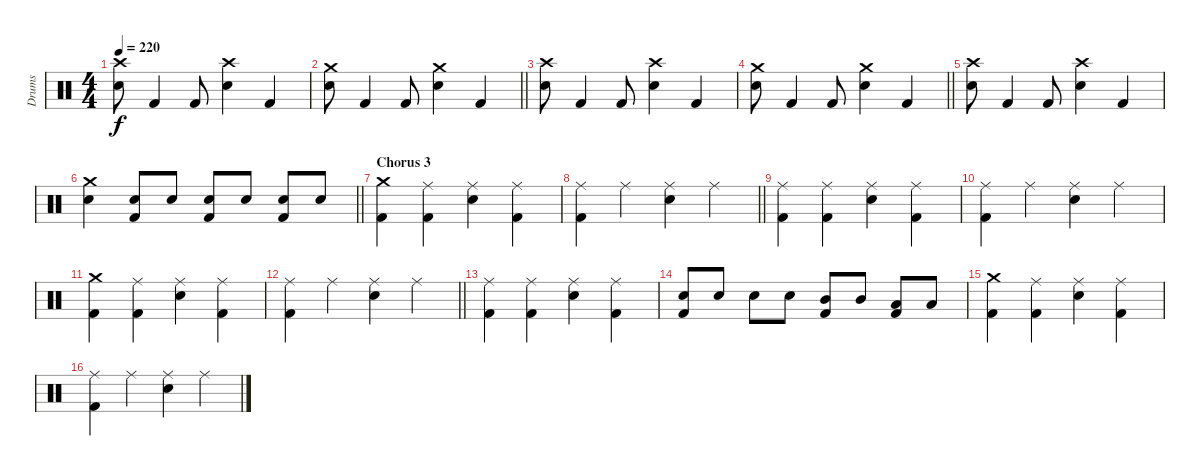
\track ("Drums" "Drums") {instrument percussion}
\staff {score}
\articulation defaults
\ts (4 4)
\tempo 220
\clef neutral
\ks c
("Crash high (hit)" "Electric Snare (hit)").8{dy f} "Kick (hit) 2".4 "Kick (hit) 2".8 ("Crash high (hit)" "Electric Snare (hit)").4 "Kick (hit) 2".4 |
\barLineRight lightlight
("Crash medium (hit)" "Electric Snare (hit)").8 "Kick (hit) 2".4 "Kick (hit) 2".8 ("Crash medium (hit)" "Electric Snare (hit)").4 "Kick (hit) 2".4 |
("Crash high (hit)" "Electric Snare (hit)").8 "Kick (hit) 2".4 "Kick (hit) 2".8 ("Crash high (hit)" "Electric Snare (hit)").4 "Kick (hit) 2".4 |
\barLineRight lightlight
("Crash medium (hit)" "Electric Snare (hit)").8 "Kick (hit) 2".4 "Kick (hit) 2".8 ("Crash medium (hit)" "Electric Snare (hit)").4 "Kick (hit) 2".4 |
("Crash high (hit)" "Electric Snare (hit)").8 "Kick (hit) 2".4 "Kick (hit) 2".8 ("Crash high (hit)" "Electric Snare (hit)").4 "Kick (hit) 2".4 |
\barLineRight lightlight
("Crash medium (hit)" "Electric Snare (hit)").4 ("Electric Snare (hit)" "Kick (hit) 2").8 "Electric Snare (hit)".8 ("Electric Snare (hit)" "Kick (hit) 2").8 "Electric Snare (hit)".8 ("Electric Snare (hit)" "Kick (hit) 2").8 "Electric Snare (hit)".8 |
\section ("" "Chorus 3")
("Crash medium (hit)" "Kick (hit) 2").4 ("Ride (middle)" "Kick (hit) 2").4 ("Ride (middle)" "Electric Snare (hit)").4 ("Ride (middle)" "Kick (hit) 2").4 |
\barLineRight lightlight
("Ride (middle)" "Kick (hit) 2").4 "Ride (middle)".4 ("Ride (middle)" "Electric Snare (hit)").4 "Ride (middle)".4 |
("Ride (middle)" "Kick (hit) 2").4 ("Ride (middle)" "Kick (hit) 2").4 ("Ride (middle)" "Electric Snare (hit)").4 ("Ride (middle)" "Kick (hit) 2").4 |
("Ride (middle)" "Kick (hit) 2").4 "Ride (middle)".4 ("Ride (middle)" "Electric Snare (hit)").4 "Ride (middle)".4 |
("Crash medium (hit)" "Kick (hit) 2").4 ("Ride (middle)" "Kick (hit) 2").4 ("Ride (middle)" "Electric Snare (hit)").4 ("Ride (middle)" "Kick (hit) 2").4 |
\barLineRight lightlight
("Ride (middle)" "Kick (hit) 2").4 "Ride (middle)".4 ("Ride (middle)" "Electric Snare (hit)").4 "Ride (middle)".4 |
("Ride (middle)" "Kick (hit) 2").4 ("Ride (middle)" "Kick (hit) 2").4 ("Ride (middle)" "Electric Snare (hit)").4 ("Ride (middle)" "Kick (hit) 2").4 |
("Electric Snare (hit)" "Kick (hit) 2").8 "Electric Snare (hit)".8 "Electric Snare (hit)".8 "Electric Snare (hit)".8 ("Mid Tom (hit)" "Kick (hit) 2").8 "Mid Tom (hit)".8 ("Low Tom (hit)" "Kick (hit) 2").8 "Low Tom (hit)".8 |
("Crash medium (hit)" "Kick (hit) 2").4 ("Ride (middle)" "Kick (hit) 2").4 ("Ride (middle)" "Electric Snare (hit)").4 ("Ride (middle)" "Kick (hit) 2").4 |
("Ride (middle)" "Kick (hit) 2").4 "Ride (middle)".4 ("Ride (middle)" "Electric Snare (hit)").4 "Ride (middle)".4
